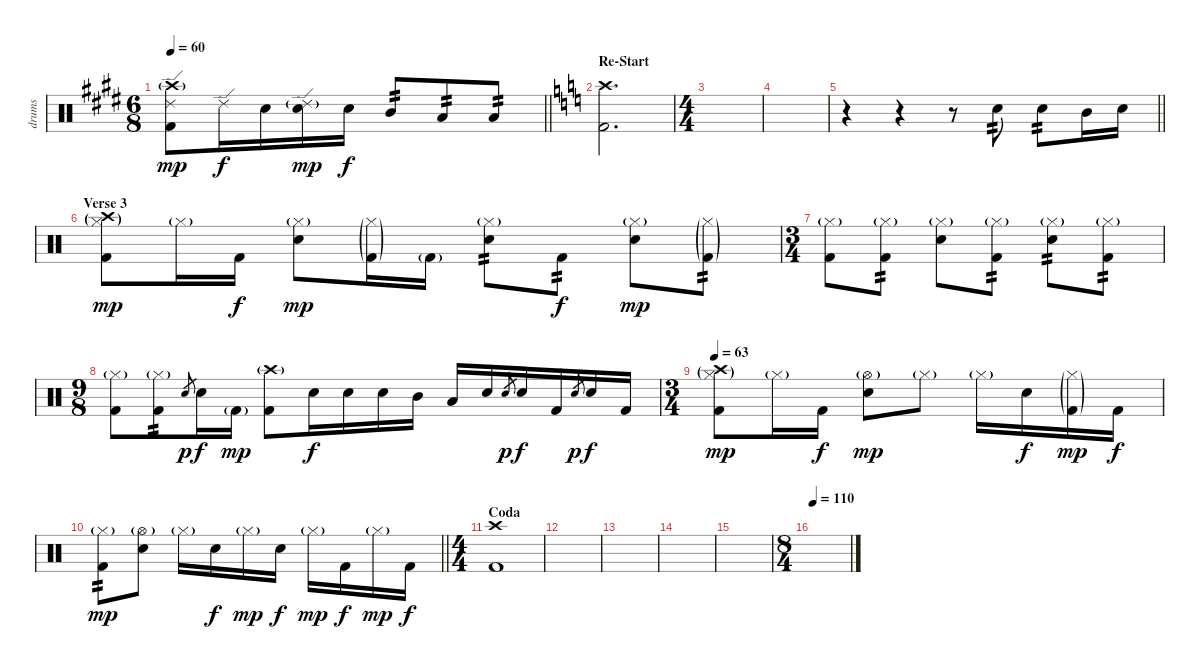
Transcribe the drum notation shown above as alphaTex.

\track ("drums" "drums") {instrument percussion}
\staff {score}
\articulation defaults
\ts (6 8)
\tempo 60
\clef neutral
\barLineRight lightlight
\ks e
("Crash high (hit)"{g} "Ride (edge) 2" "Kick (hit) 2").8{dy mp} "Ride (edge) 2".16{dy f} "Electric Snare (hit)".16 ("Ride (edge) 2"{g} "Electric Snare (hit)").16{dy mp} "Electric Snare (hit)".16{dy f} "Mid Tom (hit)".8{tp 2} "Low Tom (hit)".8{tp 2} "Low Tom (hit)".8{tp 2} |
\section ("" "Re-Start")
\ks c
("Crash high (hit)" "Kick (hit) 2").2{d} |
\ts (4 4)
|
|
\barLineRight lightlight
r.4 r.4 r.8 "Electric Snare (hit)".8{tp 2} "Electric Snare (hit)".8{tp 2} "Mid Tom (hit)".16 "Electric Snare (hit)".16 |
\section ("" "Verse 3")
("Crash high (hit)"{g} "Hi-Hat (closed)"{g} "Kick (hit) 2").8{dy mp} "Hi-Hat (closed)"{g}.16 "Kick (hit) 2".16{dy f} ("Hi-Hat (closed)"{g} "Electric Snare (hit)").8{dy mp} ("Hi-Hat (closed)"{g} "Kick (hit) 2"{g}).16 "Kick (hit) 2"{g}.16 ("Hi-Hat (closed)"{g} "Electric Snare (hit)").8{tp 2} "Kick (hit) 2".8{tp 2 dy f} ("Hi-Hat (closed)"{g} "Electric Snare (hit)").8{dy mp} ("Hi-Hat (closed)"{g} "Kick (hit) 2"{g}).8{tp 2} |
\ts (3 4)
("Hi-Hat (closed)"{g} "Kick (hit) 2").8 ("Hi-Hat (closed)"{g} "Kick (hit) 2").8{tp 2} ("Hi-Hat (closed)"{g} "Electric Snare (hit)").8 ("Hi-Hat (closed)"{g} "Kick (hit) 2").8{tp 2} ("Hi-Hat (closed)"{g} "Electric Snare (hit)").8{tp 2} ("Hi-Hat (closed)"{g} "Kick (hit) 2").8{tp 2} |
\ts (9 8)
("Hi-Hat (closed)"{g} "Kick (hit) 2").8 ("Hi-Hat (closed)"{g} "Kick (hit) 2").8{tp 2} "Electric Snare (hit)".8{gr dy p} "Electric Snare (hit)".16{dy f} "Kick (hit) 2"{g}.16{dy mp} ("Crash high (hit)"{g} "Kick (hit) 2").8 "Electric Snare (hit)".16{dy f} "Electric Snare (hit)".16 "Electric Snare (hit)".16 "Mid Tom (hit)".16 "Low Tom (hit)".16 "Electric Snare (hit)".16 "Electric Snare (hit)".8{gr dy p} "Electric Snare (hit)".16{dy f} "Kick (hit) 2".16 "Electric Snare (hit)".8{gr dy p} "Electric Snare (hit)".16{dy f} "Kick (hit) 2".16 |
\ts (3 4)
\tempo 63
("Crash high (hit)"{g} "Hi-Hat (closed)"{g} "Kick (hit) 2").8{dy mp} "Hi-Hat (closed)"{g}.16 "Kick (hit) 2".16{dy f} ("Hi-Hat (open)"{g} "Electric Snare (hit)").8{dy mp} "Hi-Hat (closed)"{g}.8 "Hi-Hat (closed)"{g}.16 "Electric Snare (hit)".16{dy f} ("Hi-Hat (closed)"{g} "Kick (hit) 2"{g}).16{dy mp} "Kick (hit) 2".16{dy f} |
\barLineRight lightlight
("Hi-Hat (closed)"{g} "Kick (hit) 2").8{tp 2 dy mp} ("Hi-Hat (open)"{g} "Electric Snare (hit)").8 "Hi-Hat (closed)"{g}.16 "Electric Snare (hit)".16{dy f} "Hi-Hat (closed)"{g}.16{dy mp} "Electric Snare (hit)".16{dy f} "Hi-Hat (closed)"{g}.16{dy mp} "Kick (hit) 2".16{dy f} "Hi-Hat (closed)"{g}.16{dy mp} "Kick (hit) 2".16{dy f} |
\ts (4 4)
\section ("" "Coda")
("Crash high (hit)" "Kick (hit) 2").1 |
|
|
|
|
\ts (8 4)
\tempo 110
